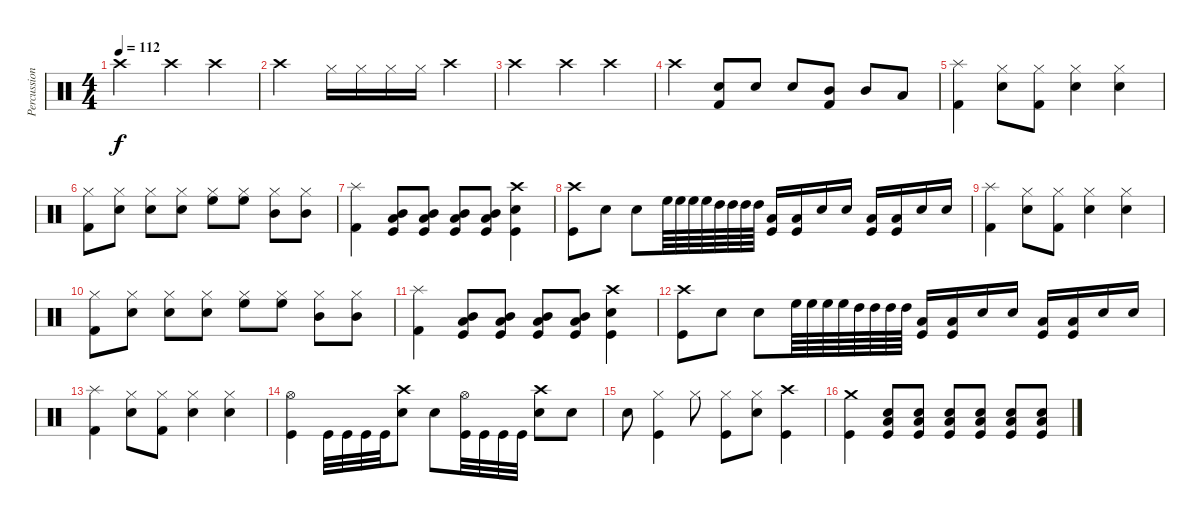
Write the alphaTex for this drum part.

\track ("Percussion" "Percussion") {instrument percussion}
\staff {score}
\articulation defaults
\ts (4 4)
\tempo 112
\clef neutral
\ks c "Crash high (hit)".2{dy f} "Crash high (hit)".4 "Crash high (hit)".4
|
"Crash high (hit)".2 "Hi-Hat (closed)".16 "Hi-Hat (closed)".16 "Hi-Hat (closed)".16 "Hi-Hat (closed)".16 "Crash high (hit)".4 |
"Crash high (hit)".2 "Crash high (hit)".4 "Crash high (hit)".4 |
"Crash high (hit)".4 ("Snare (hit) 2" "Kick (hit) 2").8 "Snare (hit) 2".8 "Snare (hit) 2".8 ("Mid Tom (hit)" "Kick (hit) 2").8 "Mid Tom (hit)".8 "Low Tom (hit)".8 |
("Splash (hit)" "Kick (hit) 2").4 ("Hi-Hat (closed)" "Snare (hit) 2").8 ("Hi-Hat (closed)" "Kick (hit) 2").8 ("Hi-Hat (closed)" "Snare (hit) 2").4 ("Hi-Hat (closed)" "Snare (hit) 2").4 |
("Hi-Hat (closed)" "Kick (hit) 2").8 ("Hi-Hat (closed)" "Snare (hit) 2").8 ("Hi-Hat (closed)" "Snare (hit) 2").8 ("Hi-Hat (closed)" "Snare (hit) 2").8 ("Hi-Hat (closed)" "High Floor Tom (hit)").8 ("Hi-Hat (closed)" "High Floor Tom (hit)").8 ("Hi-Hat (closed)" "Mid Tom (hit)").8 ("Hi-Hat (closed)" "Mid Tom (hit)").8 |
("Splash (hit)" "Kick (hit) 2").4 ("Low Floor Tom (hit)" "Mid Tom (hit)" "Kick (hit)").8 ("Low Floor Tom (hit)" "Mid Tom (hit)" "Kick (hit)").8 ("Low Floor Tom (hit)" "Mid Tom (hit)" "Kick (hit)").8 ("Low Floor Tom (hit)" "Mid Tom (hit)" "Kick (hit)").8 ("Crash high (hit)" "Snare (hit) 2" "Kick (hit)").4 |
("Crash high (hit)" "Kick (hit)").8 "Snare (hit) 2".8 "Snare (hit) 2".8 "High Floor Tom (hit)".64 "High Floor Tom (hit)".64 "High Floor Tom (hit)".64 "High Floor Tom (hit)".64 "High Tom (hit)".64 "High Tom (hit)".64 "High Tom (hit)".64 "High Tom (hit)".64 ("Low Tom (hit)" "Kick (hit)").16 ("Low Tom (hit)" "Kick (hit)").16 "Snare (hit) 2".16 "Snare (hit) 2".16 ("Low Tom (hit)" "Kick (hit)").16 ("Low Tom (hit)" "Kick (hit)").16 "Snare (hit) 2".16 "Snare (hit) 2".16 |
("Splash (hit)" "Kick (hit) 2").4 ("Hi-Hat (closed)" "Snare (hit) 2").8 ("Hi-Hat (closed)" "Kick (hit) 2").8 ("Hi-Hat (closed)" "Snare (hit) 2").4 ("Hi-Hat (closed)" "Snare (hit) 2").4 |
("Hi-Hat (closed)" "Kick (hit) 2").8 ("Hi-Hat (closed)" "Snare (hit) 2").8 ("Hi-Hat (closed)" "Snare (hit) 2").8 ("Hi-Hat (closed)" "Snare (hit) 2").8 ("Hi-Hat (closed)" "High Floor Tom (hit)").8 ("Hi-Hat (closed)" "High Floor Tom (hit)").8 ("Hi-Hat (closed)" "Mid Tom (hit)").8 ("Hi-Hat (closed)" "Mid Tom (hit)").8 |
("Splash (hit)" "Kick (hit) 2").4 ("Low Floor Tom (hit)" "Mid Tom (hit)" "Kick (hit)").8 ("Low Floor Tom (hit)" "Mid Tom (hit)" "Kick (hit)").8 ("Low Floor Tom (hit)" "Mid Tom (hit)" "Kick (hit)").8 ("Low Floor Tom (hit)" "Mid Tom (hit)" "Kick (hit)").8 ("Crash high (hit)" "Snare (hit) 2" "Kick (hit)").4 |
("Crash high (hit)" "Kick (hit)").8 "Snare (hit) 2".8 "Snare (hit) 2".8 "High Floor Tom (hit)".64 "High Floor Tom (hit)".64 "High Floor Tom (hit)".64 "High Floor Tom (hit)".64 "High Tom (hit)".64 "High Tom (hit)".64 "High Tom (hit)".64 "High Tom (hit)".64 ("Low Tom (hit)" "Kick (hit)").16 ("Low Tom (hit)" "Kick (hit)").16 "Snare (hit) 2".16 "Snare (hit) 2".16 ("Low Tom (hit)" "Kick (hit)").16 ("Low Tom (hit)" "Kick (hit)").16 "Snare (hit) 2".16 "Snare (hit) 2".16 |
("Splash (hit)" "Kick (hit) 2").4 ("Hi-Hat (closed)" "Snare (hit) 2").8 ("Hi-Hat (closed)" "Kick (hit) 2").8 ("Hi-Hat (closed)" "Snare (hit) 2").4 ("Hi-Hat (closed)" "Snare (hit) 2").4 |
("Hi-Hat (open)" "Kick (hit)").4 "Kick (hit)".32 "Kick (hit)".32 "Kick (hit)".32 "Kick (hit)".32 ("Crash high (hit)" "Snare (hit) 2").8 "Snare (hit) 2".8 ("Hi-Hat (open)" "Kick (hit)").32 "Kick (hit)".32 "Kick (hit)".32 "Kick (hit)".32 ("Crash high (hit)" "Snare (hit) 2").8 "Snare (hit) 2".8 |
"Snare (hit) 2".8 ("Hi-Hat (closed)" "Kick (hit)").4 "Hi-Hat (closed)".8 ("Hi-Hat (closed)" "Kick (hit)").8 ("Hi-Hat (closed)" "Snare (hit) 2").8 ("Crash high (hit)" "Kick (hit)").4 |
("Crash medium (hit)" "Kick (hit)").4 ("Low Floor Tom (hit)" "Snare (hit) 2" "Kick (hit)").8 ("Low Floor Tom (hit)" "Snare (hit) 2" "Kick (hit)").8 ("Low Floor Tom (hit)" "Snare (hit) 2" "Kick (hit)").8 ("Low Floor Tom (hit)" "Snare (hit) 2" "Kick (hit)").8 ("Low Floor Tom (hit)" "Snare (hit) 2" "Kick (hit)").8 ("Low Floor Tom (hit)" "Snare (hit) 2" "Kick (hit)").8
